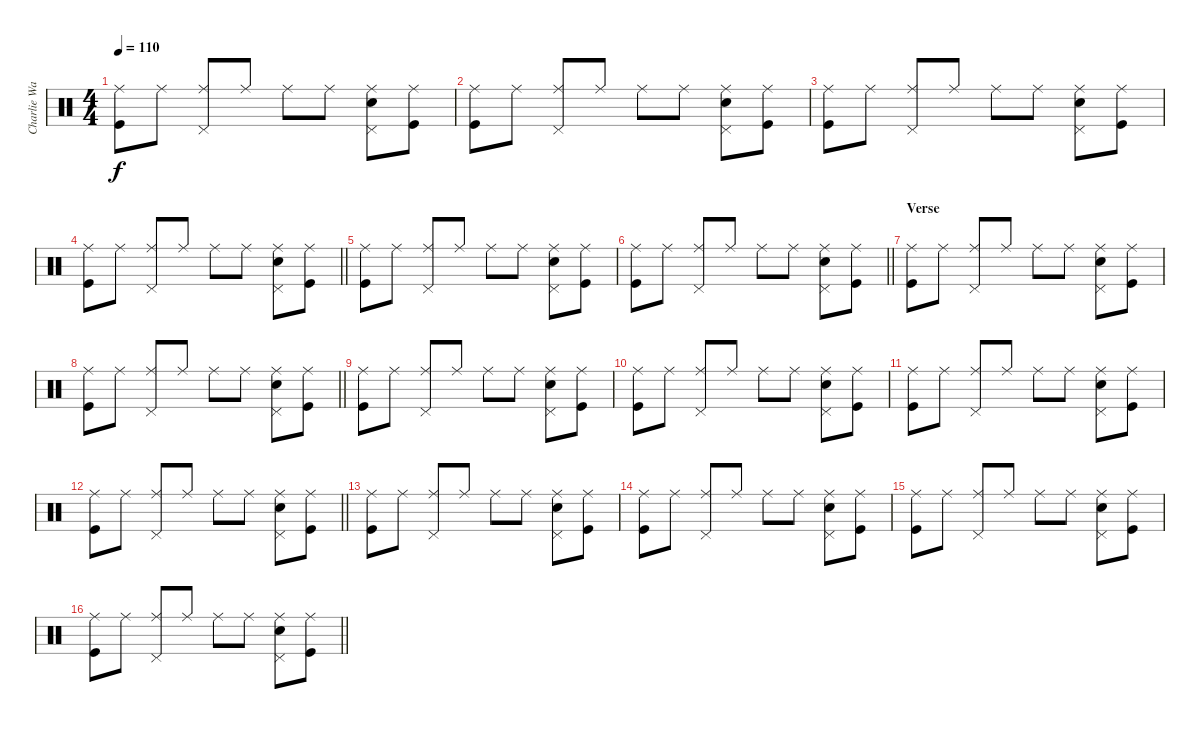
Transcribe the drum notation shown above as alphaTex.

\track ("Charlie Watts" "Charlie Wa") {instrument percussion}
\staff {score}
\articulation defaults
\ts (4 4)
\tempo 110
\clef neutral
\ks c
("Ride (middle)" "Kick (hit)").8{dy f} "Ride (middle)".8 ("Ride (middle)" "Pedal Hi-Hat (hit)").8 "Ride (middle)".8 "Ride (middle)".8 "Ride (middle)".8 ("Ride (middle)" "Snare (hit) 2" "Pedal Hi-Hat (hit)").8 ("Ride (middle)" "Kick (hit)").8 |
("Ride (middle)" "Kick (hit)").8 "Ride (middle)".8 ("Ride (middle)" "Pedal Hi-Hat (hit)").8 "Ride (middle)".8 "Ride (middle)".8 "Ride (middle)".8 ("Ride (middle)" "Snare (hit) 2" "Pedal Hi-Hat (hit)").8 ("Ride (middle)" "Kick (hit)").8 |
("Ride (middle)" "Kick (hit)").8 "Ride (middle)".8 ("Ride (middle)" "Pedal Hi-Hat (hit)").8 "Ride (middle)".8 "Ride (middle)".8 "Ride (middle)".8 ("Ride (middle)" "Snare (hit) 2" "Pedal Hi-Hat (hit)").8 ("Ride (middle)" "Kick (hit)").8 |
\barLineRight lightlight
("Ride (middle)" "Kick (hit)").8 "Ride (middle)".8 ("Ride (middle)" "Pedal Hi-Hat (hit)").8 "Ride (middle)".8 "Ride (middle)".8 "Ride (middle)".8 ("Ride (middle)" "Snare (hit) 2" "Pedal Hi-Hat (hit)").8 ("Ride (middle)" "Kick (hit)").8 |
("Ride (middle)" "Kick (hit)").8 "Ride (middle)".8 ("Ride (middle)" "Pedal Hi-Hat (hit)").8 "Ride (middle)".8 "Ride (middle)".8 "Ride (middle)".8 ("Ride (middle)" "Snare (hit) 2" "Pedal Hi-Hat (hit)").8 ("Ride (middle)" "Kick (hit)").8 |
\barLineRight lightlight
("Ride (middle)" "Kick (hit)").8 "Ride (middle)".8 ("Ride (middle)" "Pedal Hi-Hat (hit)").8 "Ride (middle)".8 "Ride (middle)".8 "Ride (middle)".8 ("Ride (middle)" "Snare (hit) 2" "Pedal Hi-Hat (hit)").8 ("Ride (middle)" "Kick (hit)").8 |
\section ("" "Verse")
("Ride (middle)" "Kick (hit)").8 "Ride (middle)".8 ("Ride (middle)" "Pedal Hi-Hat (hit)").8 "Ride (middle)".8 "Ride (middle)".8 "Ride (middle)".8 ("Ride (middle)" "Snare (hit) 2" "Pedal Hi-Hat (hit)").8 ("Ride (middle)" "Kick (hit)").8 |
\barLineRight lightlight
("Ride (middle)" "Kick (hit)").8 "Ride (middle)".8 ("Ride (middle)" "Pedal Hi-Hat (hit)").8 "Ride (middle)".8 "Ride (middle)".8 "Ride (middle)".8 ("Ride (middle)" "Snare (hit) 2" "Pedal Hi-Hat (hit)").8 ("Ride (middle)" "Kick (hit)").8 |
("Ride (middle)" "Kick (hit)").8 "Ride (middle)".8 ("Ride (middle)" "Pedal Hi-Hat (hit)").8 "Ride (middle)".8 "Ride (middle)".8 "Ride (middle)".8 ("Ride (middle)" "Snare (hit) 2" "Pedal Hi-Hat (hit)").8 ("Ride (middle)" "Kick (hit)").8 |
("Ride (middle)" "Kick (hit)").8 "Ride (middle)".8 ("Ride (middle)" "Pedal Hi-Hat (hit)").8 "Ride (middle)".8 "Ride (middle)".8 "Ride (middle)".8 ("Ride (middle)" "Snare (hit) 2" "Pedal Hi-Hat (hit)").8 ("Ride (middle)" "Kick (hit)").8 |
("Ride (middle)" "Kick (hit)").8 "Ride (middle)".8 ("Ride (middle)" "Pedal Hi-Hat (hit)").8 "Ride (middle)".8 "Ride (middle)".8 "Ride (middle)".8 ("Ride (middle)" "Snare (hit) 2" "Pedal Hi-Hat (hit)").8 ("Ride (middle)" "Kick (hit)").8 |
\barLineRight lightlight
("Ride (middle)" "Kick (hit)").8 "Ride (middle)".8 ("Ride (middle)" "Pedal Hi-Hat (hit)").8 "Ride (middle)".8 "Ride (middle)".8 "Ride (middle)".8 ("Ride (middle)" "Snare (hit) 2" "Pedal Hi-Hat (hit)").8 ("Ride (middle)" "Kick (hit)").8 |
("Ride (middle)" "Kick (hit)").8 "Ride (middle)".8 ("Ride (middle)" "Pedal Hi-Hat (hit)").8 "Ride (middle)".8 "Ride (middle)".8 "Ride (middle)".8 ("Ride (middle)" "Snare (hit) 2" "Pedal Hi-Hat (hit)").8 ("Ride (middle)" "Kick (hit)").8 |
("Ride (middle)" "Kick (hit)").8 "Ride (middle)".8 ("Ride (middle)" "Pedal Hi-Hat (hit)").8 "Ride (middle)".8 "Ride (middle)".8 "Ride (middle)".8 ("Ride (middle)" "Snare (hit) 2" "Pedal Hi-Hat (hit)").8 ("Ride (middle)" "Kick (hit)").8 |
("Ride (middle)" "Kick (hit)").8 "Ride (middle)".8 ("Ride (middle)" "Pedal Hi-Hat (hit)").8 "Ride (middle)".8 "Ride (middle)".8 "Ride (middle)".8 ("Ride (middle)" "Snare (hit) 2" "Pedal Hi-Hat (hit)").8 ("Ride (middle)" "Kick (hit)").8 |
\barLineRight lightlight
("Ride (middle)" "Kick (hit)").8 "Ride (middle)".8 ("Ride (middle)" "Pedal Hi-Hat (hit)").8 "Ride (middle)".8 "Ride (middle)".8 "Ride (middle)".8 ("Ride (middle)" "Snare (hit) 2" "Pedal Hi-Hat (hit)").8 ("Ride (middle)" "Kick (hit)").8
